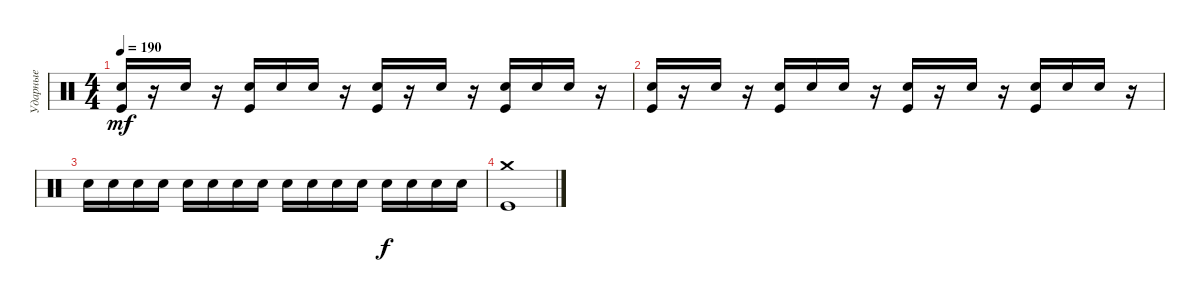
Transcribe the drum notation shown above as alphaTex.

\track ("Ударные" "Ударные") {instrument percussion}
\staff {score}
\articulation defaults
\ts (4 4)
\tempo 190
\clef neutral
\ks c
("Electric Snare (hit)" "Kick (hit)").16{dy mf} r.16 "Electric Snare (hit)".16 r.16 ("Electric Snare (hit)" "Kick (hit)").16 "Electric Snare (hit)".16 "Electric Snare (hit)".16 r.16 ("Electric Snare (hit)" "Kick (hit)").16 r.16 "Electric Snare (hit)".16 r.16 ("Electric Snare (hit)" "Kick (hit)").16 "Electric Snare (hit)".16 "Electric Snare (hit)".16 r.16 |
("Electric Snare (hit)" "Kick (hit)").16 r.16 "Electric Snare (hit)".16 r.16 ("Electric Snare (hit)" "Kick (hit)").16 "Electric Snare (hit)".16 "Electric Snare (hit)".16 r.16 ("Electric Snare (hit)" "Kick (hit)").16 r.16 "Electric Snare (hit)".16 r.16 ("Electric Snare (hit)" "Kick (hit)").16 "Electric Snare (hit)".16 "Electric Snare (hit)".16 r.16 |
"Electric Snare (hit)".16 "Electric Snare (hit)".16 "Electric Snare (hit)".16 "Electric Snare (hit)".16 "Electric Snare (hit)".16 "Electric Snare (hit)".16 "Electric Snare (hit)".16 "Electric Snare (hit)".16 "Electric Snare (hit)".16 "Electric Snare (hit)".16 "Electric Snare (hit)".16 "Electric Snare (hit)".16 "Electric Snare (hit)".16{dy f} "Electric Snare (hit)".16 "Electric Snare (hit)".16 "Electric Snare (hit)".16 |
("Crash medium (hit)" "Kick (hit)").1
